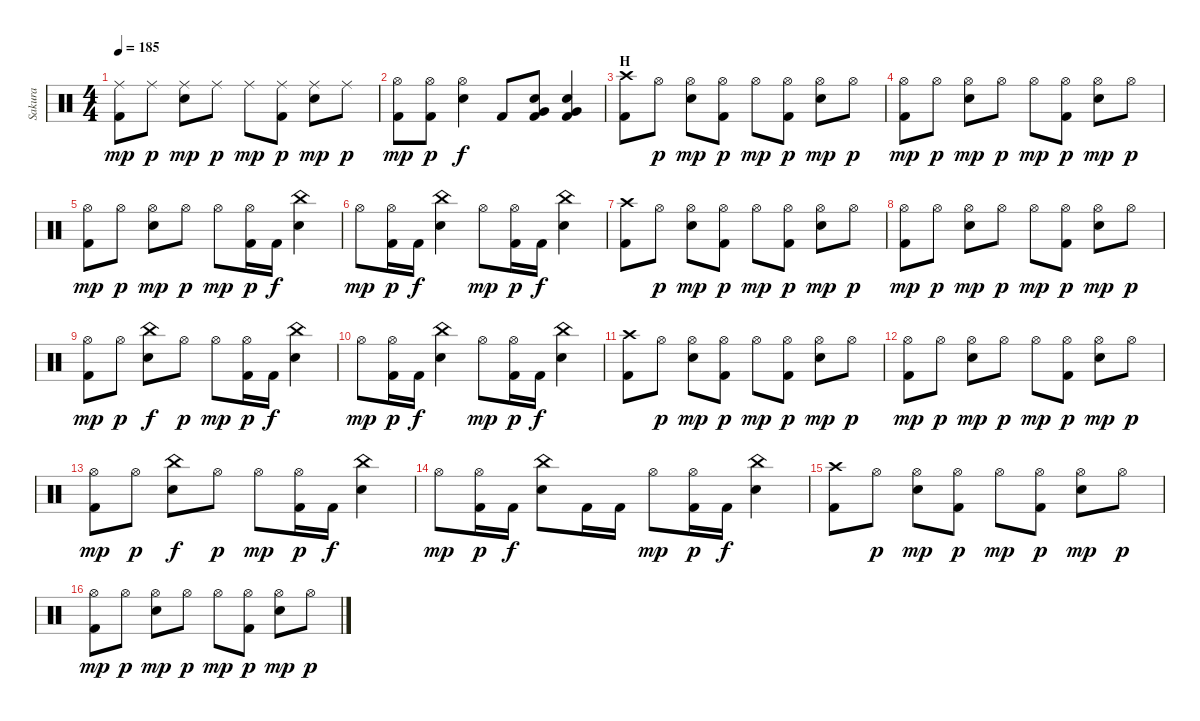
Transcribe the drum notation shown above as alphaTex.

\track ("Sakura" "Sakura") {instrument percussion}
\staff {score}
\articulation defaults
\ts (4 4)
\tempo 185
\clef neutral
\ks c
("Ride (middle)" "Kick (hit) 2").8{dy mp} "Ride (middle)".8{dy p} ("Ride (middle)" "Electric Snare (hit)").8{dy mp} "Ride (middle)".8{dy p} "Ride (middle)".8{dy mp} ("Ride (middle)" "Kick (hit) 2").8{dy p} ("Ride (middle)" "Electric Snare (hit)").8{dy mp} "Ride (middle)".8{dy p} |
("Hi-Hat (open)" "Kick (hit) 2").8{dy mp} ("Hi-Hat (open)" "Kick (hit) 2").8{dy p} ("Hi-Hat (open)" "Electric Snare (hit)").4{dy f} "Kick (hit) 2".8 ("Electric Snare (hit)" "Very Low Tom (hit)" "Kick (hit) 2").8 ("Electric Snare (hit)" "Very Low Tom (hit)" "Kick (hit) 2").4 |
\section ("" "H")
("Crash high (hit)" "Kick (hit) 2").8 "Hi-Hat (open)".8{dy p} ("Hi-Hat (open)" "Electric Snare (hit)").8{dy mp} ("Hi-Hat (open)" "Kick (hit) 2").8{dy p} "Hi-Hat (open)".8{dy mp} ("Hi-Hat (open)" "Kick (hit) 2").8{dy p} ("Hi-Hat (open)" "Electric Snare (hit)").8{dy mp} "Hi-Hat (open)".8{dy p} |
("Hi-Hat (open)" "Kick (hit) 2").8{dy mp} "Hi-Hat (open)".8{dy p} ("Hi-Hat (open)" "Electric Snare (hit)").8{dy mp} "Hi-Hat (open)".8{dy p} "Hi-Hat (open)".8{dy mp} ("Hi-Hat (open)" "Kick (hit) 2").8{dy p} ("Hi-Hat (open)" "Electric Snare (hit)").8{dy mp} "Hi-Hat (open)".8{dy p} |
("Hi-Hat (open)" "Kick (hit) 2").8{dy mp} "Hi-Hat (open)".8{dy p} ("Hi-Hat (open)" "Electric Snare (hit)").8{dy mp} "Hi-Hat (open)".8{dy p} "Hi-Hat (open)".8{dy mp} ("Hi-Hat (open)" "Kick (hit) 2").16{dy p} "Kick (hit) 2".16{dy f} ("China (hit)" "Electric Snare (hit)").4 |
"Hi-Hat (open)".8{dy mp} ("Hi-Hat (open)" "Kick (hit) 2").16{dy p} "Kick (hit) 2".16{dy f} ("China (hit)" "Electric Snare (hit)").4 "Hi-Hat (open)".8{dy mp} ("Hi-Hat (open)" "Kick (hit) 2").16{dy p} "Kick (hit) 2".16{dy f} ("China (hit)" "Electric Snare (hit)").4 |
("Crash high (hit)" "Kick (hit) 2").8 "Hi-Hat (open)".8{dy p} ("Hi-Hat (open)" "Electric Snare (hit)").8{dy mp} ("Hi-Hat (open)" "Kick (hit) 2").8{dy p} "Hi-Hat (open)".8{dy mp} ("Hi-Hat (open)" "Kick (hit) 2").8{dy p} ("Hi-Hat (open)" "Electric Snare (hit)").8{dy mp} "Hi-Hat (open)".8{dy p} |
("Hi-Hat (open)" "Kick (hit) 2").8{dy mp} "Hi-Hat (open)".8{dy p} ("Hi-Hat (open)" "Electric Snare (hit)").8{dy mp} "Hi-Hat (open)".8{dy p} "Hi-Hat (open)".8{dy mp} ("Hi-Hat (open)" "Kick (hit) 2").8{dy p} ("Hi-Hat (open)" "Electric Snare (hit)").8{dy mp} "Hi-Hat (open)".8{dy p} |
("Hi-Hat (open)" "Kick (hit) 2").8{dy mp} "Hi-Hat (open)".8{dy p} ("China (hit)" "Electric Snare (hit)").8{dy f} "Hi-Hat (open)".8{dy p} "Hi-Hat (open)".8{dy mp} ("Hi-Hat (open)" "Kick (hit) 2").16{dy p} "Kick (hit) 2".16{dy f} ("China (hit)" "Electric Snare (hit)").4 |
"Hi-Hat (open)".8{dy mp} ("Hi-Hat (open)" "Kick (hit) 2").16{dy p} "Kick (hit) 2".16{dy f} ("China (hit)" "Electric Snare (hit)").4 "Hi-Hat (open)".8{dy mp} ("Hi-Hat (open)" "Kick (hit) 2").16{dy p} "Kick (hit) 2".16{dy f} ("China (hit)" "Electric Snare (hit)").4 |
("Crash high (hit)" "Kick (hit) 2").8 "Hi-Hat (open)".8{dy p} ("Hi-Hat (open)" "Electric Snare (hit)").8{dy mp} ("Hi-Hat (open)" "Kick (hit) 2").8{dy p} "Hi-Hat (open)".8{dy mp} ("Hi-Hat (open)" "Kick (hit) 2").8{dy p} ("Hi-Hat (open)" "Electric Snare (hit)").8{dy mp} "Hi-Hat (open)".8{dy p} |
("Hi-Hat (open)" "Kick (hit) 2").8{dy mp} "Hi-Hat (open)".8{dy p} ("Hi-Hat (open)" "Electric Snare (hit)").8{dy mp} "Hi-Hat (open)".8{dy p} "Hi-Hat (open)".8{dy mp} ("Hi-Hat (open)" "Kick (hit) 2").8{dy p} ("Hi-Hat (open)" "Electric Snare (hit)").8{dy mp} "Hi-Hat (open)".8{dy p} |
("Hi-Hat (open)" "Kick (hit) 2").8{dy mp} "Hi-Hat (open)".8{dy p} ("China (hit)" "Electric Snare (hit)").8{dy f} "Hi-Hat (open)".8{dy p} "Hi-Hat (open)".8{dy mp} ("Hi-Hat (open)" "Kick (hit) 2").16{dy p} "Kick (hit) 2".16{dy f} ("China (hit)" "Electric Snare (hit)").4 |
"Hi-Hat (open)".8{dy mp} ("Hi-Hat (open)" "Kick (hit) 2").16{dy p} "Kick (hit) 2".16{dy f} ("China (hit)" "Electric Snare (hit)").8 "Kick (hit) 2".16 "Kick (hit) 2".16 "Hi-Hat (open)".8{dy mp} ("Hi-Hat (open)" "Kick (hit) 2").16{dy p} "Kick (hit) 2".16{dy f} ("China (hit)" "Electric Snare (hit)").4 |
("Crash high (hit)" "Kick (hit) 2").8 "Hi-Hat (open)".8{dy p} ("Hi-Hat (open)" "Electric Snare (hit)").8{dy mp} ("Hi-Hat (open)" "Kick (hit) 2").8{dy p} "Hi-Hat (open)".8{dy mp} ("Hi-Hat (open)" "Kick (hit) 2").8{dy p} ("Hi-Hat (open)" "Electric Snare (hit)").8{dy mp} "Hi-Hat (open)".8{dy p} |
("Hi-Hat (open)" "Kick (hit) 2").8{dy mp} "Hi-Hat (open)".8{dy p} ("Hi-Hat (open)" "Electric Snare (hit)").8{dy mp} "Hi-Hat (open)".8{dy p} "Hi-Hat (open)".8{dy mp} ("Hi-Hat (open)" "Kick (hit) 2").8{dy p} ("Hi-Hat (open)" "Electric Snare (hit)").8{dy mp} "Hi-Hat (open)".8{dy p}
